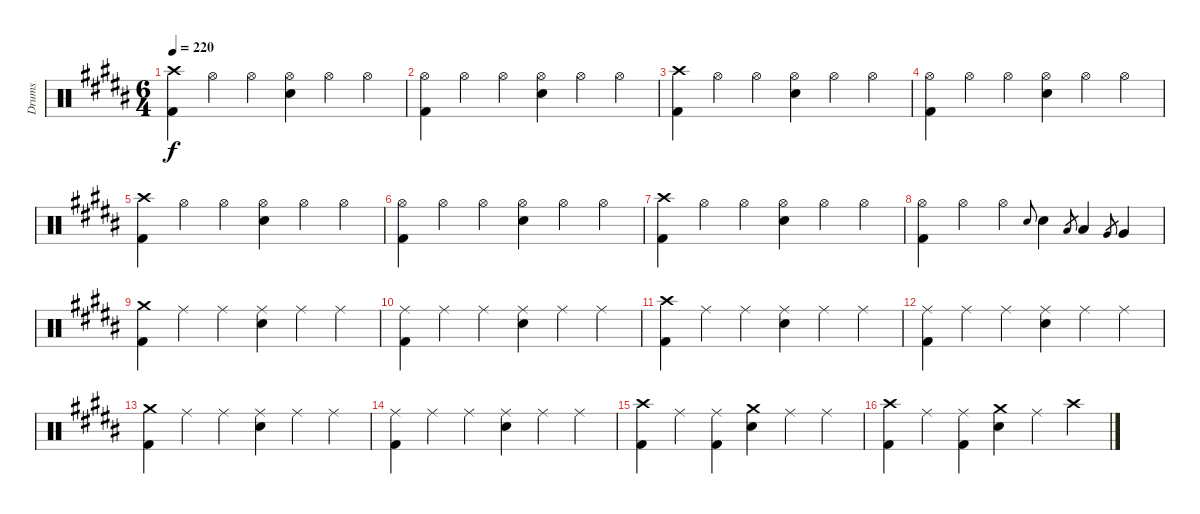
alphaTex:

\track ("Drums" "Drums") {instrument percussion}
\staff {score}
\articulation defaults
\ts (6 4)
\tempo 220
\clef neutral
\ks g#minor
("Crash high (hit)" "Kick (hit) 2").4{dy f} "Hi-Hat (open)".4 "Hi-Hat (open)".4 ("Hi-Hat (open)" "Electric Snare (hit)").4 "Hi-Hat (open)".4 "Hi-Hat (open)".4 |
("Hi-Hat (open)" "Kick (hit) 2").4 "Hi-Hat (open)".4 "Hi-Hat (open)".4 ("Hi-Hat (open)" "Electric Snare (hit)").4 "Hi-Hat (open)".4 "Hi-Hat (open)".4 |
("Crash high (hit)" "Kick (hit) 2").4 "Hi-Hat (open)".4 "Hi-Hat (open)".4 ("Hi-Hat (open)" "Electric Snare (hit)").4 "Hi-Hat (open)".4 "Hi-Hat (open)".4 |
("Hi-Hat (open)" "Kick (hit) 2").4 "Hi-Hat (open)".4 "Hi-Hat (open)".4 ("Hi-Hat (open)" "Electric Snare (hit)").4 "Hi-Hat (open)".4 "Hi-Hat (open)".4 |
("Crash high (hit)" "Kick (hit) 2").4 "Hi-Hat (open)".4 "Hi-Hat (open)".4 ("Hi-Hat (open)" "Electric Snare (hit)").4 "Hi-Hat (open)".4 "Hi-Hat (open)".4 |
("Hi-Hat (open)" "Kick (hit) 2").4 "Hi-Hat (open)".4 "Hi-Hat (open)".4 ("Hi-Hat (open)" "Electric Snare (hit)").4 "Hi-Hat (open)".4 "Hi-Hat (open)".4 |
("Crash high (hit)" "Kick (hit) 2").4 "Hi-Hat (open)".4 "Hi-Hat (open)".4 ("Hi-Hat (open)" "Electric Snare (hit)").4 "Hi-Hat (open)".4 "Hi-Hat (open)".4 |
("Hi-Hat (open)" "Kick (hit) 2").4 "Hi-Hat (open)".4 "Hi-Hat (open)".4 "Electric Snare (hit)".8{gr onbeat} "Electric Snare (hit)".4 "Low Tom (hit)".8{gr} "Low Tom (hit)".4 "Very Low Tom (hit)".8{gr} "Very Low Tom (hit)".4 |
("Crash medium (hit)" "Kick (hit) 2").4 "Ride (middle)".4 "Ride (middle)".4 ("Ride (middle)" "Electric Snare (hit)").4 "Ride (middle)".4 "Ride (middle)".4 |
("Ride (middle)" "Kick (hit) 2").4 "Ride (middle)".4 "Ride (middle)".4 ("Ride (middle)" "Electric Snare (hit)").4 "Ride (middle)".4 "Ride (middle)".4 |
("Crash high (hit)" "Kick (hit) 2").4 "Ride (middle)".4 "Ride (middle)".4 ("Ride (middle)" "Electric Snare (hit)").4 "Ride (middle)".4 "Ride (middle)".4 |
("Ride (middle)" "Kick (hit) 2").4 "Ride (middle)".4 "Ride (middle)".4 ("Ride (middle)" "Electric Snare (hit)").4 "Ride (middle)".4 "Ride (middle)".4 |
("Crash medium (hit)" "Kick (hit) 2").4 "Ride (middle)".4 "Ride (middle)".4 ("Ride (middle)" "Electric Snare (hit)").4 "Ride (middle)".4 "Ride (middle)".4 |
("Ride (middle)" "Kick (hit) 2").4 "Ride (middle)".4 "Ride (middle)".4 ("Ride (middle)" "Electric Snare (hit)").4 "Ride (middle)".4 "Ride (middle)".4 |
("Crash high (hit)" "Kick (hit) 2").4 "Ride (middle)".4 ("Ride (middle)" "Kick (hit) 2").4 ("Crash medium (hit)" "Electric Snare (hit)").4 "Ride (middle)".4 "Ride (middle)".4 |
("Crash high (hit)" "Kick (hit) 2").4 "Ride (middle)".4 ("Ride (middle)" "Kick (hit) 2").4 ("Crash medium (hit)" "Electric Snare (hit)").4 "Ride (middle)".4 "Crash high (hit)".4
